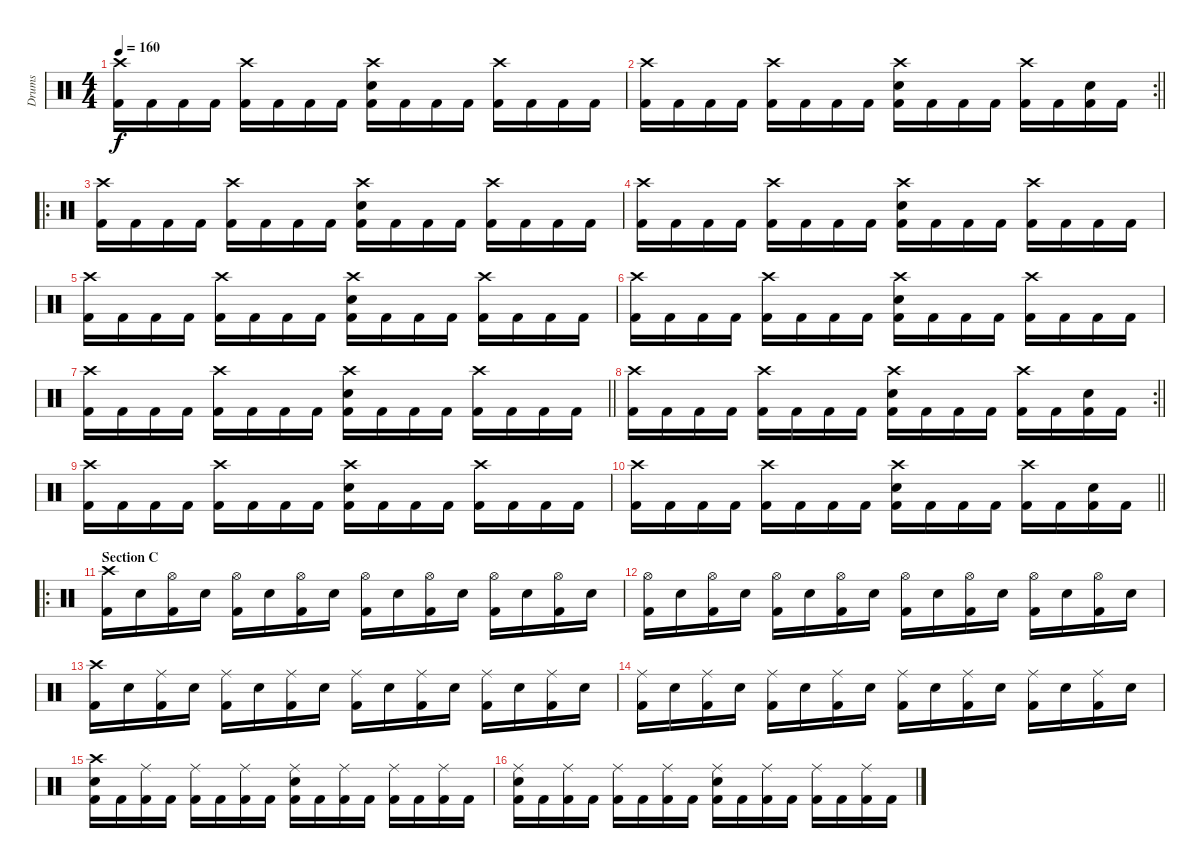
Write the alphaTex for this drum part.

\track ("Drums" "Drums") {instrument percussion}
\staff {score}
\articulation defaults
\ts (4 4)
\tempo 160
\clef neutral
\ks c
("Crash high (hit)" "Kick (hit) 2").16{dy f} "Kick (hit) 2".16 "Kick (hit) 2".16 "Kick (hit) 2".16 ("Crash high (hit)" "Kick (hit) 2").16 "Kick (hit) 2".16 "Kick (hit) 2".16 "Kick (hit) 2".16 ("Crash high (hit)" "Snare (hit) 2" "Kick (hit) 2").16 "Kick (hit) 2".16 "Kick (hit) 2".16 "Kick (hit) 2".16 ("Crash high (hit)" "Kick (hit) 2").16 "Kick (hit) 2".16 "Kick (hit) 2".16 "Kick (hit) 2".16 |
\rc 2
\barLineRight lightlight
("Crash high (hit)" "Kick (hit) 2").16 "Kick (hit) 2".16 "Kick (hit) 2".16 "Kick (hit) 2".16 ("Crash high (hit)" "Kick (hit) 2").16 "Kick (hit) 2".16 "Kick (hit) 2".16 "Kick (hit) 2".16 ("Crash high (hit)" "Snare (hit) 2" "Kick (hit) 2").16 "Kick (hit) 2".16 "Kick (hit) 2".16 "Kick (hit) 2".16 ("Crash high (hit)" "Kick (hit) 2").16 "Kick (hit) 2".16 ("Snare (hit) 2" "Kick (hit) 2").16 "Kick (hit) 2".16 |
\ro
\section ("" "")
("Crash high (hit)" "Kick (hit) 2").16 "Kick (hit) 2".16 "Kick (hit) 2".16 "Kick (hit) 2".16 ("Crash high (hit)" "Kick (hit) 2").16 "Kick (hit) 2".16 "Kick (hit) 2".16 "Kick (hit) 2".16 ("Crash high (hit)" "Snare (hit) 2" "Kick (hit) 2").16 "Kick (hit) 2".16 "Kick (hit) 2".16 "Kick (hit) 2".16 ("Crash high (hit)" "Kick (hit) 2").16 "Kick (hit) 2".16 "Kick (hit) 2".16 "Kick (hit) 2".16 |
("Crash high (hit)" "Kick (hit) 2").16 "Kick (hit) 2".16 "Kick (hit) 2".16 "Kick (hit) 2".16 ("Crash high (hit)" "Kick (hit) 2").16 "Kick (hit) 2".16 "Kick (hit) 2".16 "Kick (hit) 2".16 ("Crash high (hit)" "Snare (hit) 2" "Kick (hit) 2").16 "Kick (hit) 2".16 "Kick (hit) 2".16 "Kick (hit) 2".16 ("Crash high (hit)" "Kick (hit) 2").16 "Kick (hit) 2".16 "Kick (hit) 2".16 "Kick (hit) 2".16 |
("Crash high (hit)" "Kick (hit) 2").16 "Kick (hit) 2".16 "Kick (hit) 2".16 "Kick (hit) 2".16 ("Crash high (hit)" "Kick (hit) 2").16 "Kick (hit) 2".16 "Kick (hit) 2".16 "Kick (hit) 2".16 ("Crash high (hit)" "Snare (hit) 2" "Kick (hit) 2").16 "Kick (hit) 2".16 "Kick (hit) 2".16 "Kick (hit) 2".16 ("Crash high (hit)" "Kick (hit) 2").16 "Kick (hit) 2".16 "Kick (hit) 2".16 "Kick (hit) 2".16 |
("Crash high (hit)" "Kick (hit) 2").16 "Kick (hit) 2".16 "Kick (hit) 2".16 "Kick (hit) 2".16 ("Crash high (hit)" "Kick (hit) 2").16 "Kick (hit) 2".16 "Kick (hit) 2".16 "Kick (hit) 2".16 ("Crash high (hit)" "Snare (hit) 2" "Kick (hit) 2").16 "Kick (hit) 2".16 "Kick (hit) 2".16 "Kick (hit) 2".16 ("Crash high (hit)" "Kick (hit) 2").16 "Kick (hit) 2".16 "Kick (hit) 2".16 "Kick (hit) 2".16 |
\barLineRight lightlight
("Crash high (hit)" "Kick (hit) 2").16 "Kick (hit) 2".16 "Kick (hit) 2".16 "Kick (hit) 2".16 ("Crash high (hit)" "Kick (hit) 2").16 "Kick (hit) 2".16 "Kick (hit) 2".16 "Kick (hit) 2".16 ("Crash high (hit)" "Snare (hit) 2" "Kick (hit) 2").16 "Kick (hit) 2".16 "Kick (hit) 2".16 "Kick (hit) 2".16 ("Crash high (hit)" "Kick (hit) 2").16 "Kick (hit) 2".16 "Kick (hit) 2".16 "Kick (hit) 2".16 |
\rc 2
\barLineRight lightlight
("Crash high (hit)" "Kick (hit) 2").16 "Kick (hit) 2".16 "Kick (hit) 2".16 "Kick (hit) 2".16 ("Crash high (hit)" "Kick (hit) 2").16 "Kick (hit) 2".16 "Kick (hit) 2".16 "Kick (hit) 2".16 ("Crash high (hit)" "Snare (hit) 2" "Kick (hit) 2").16 "Kick (hit) 2".16 "Kick (hit) 2".16 "Kick (hit) 2".16 ("Crash high (hit)" "Kick (hit) 2").16 "Kick (hit) 2".16 ("Snare (hit) 2" "Kick (hit) 2").16 "Kick (hit) 2".16 |
("Crash high (hit)" "Kick (hit) 2").16 "Kick (hit) 2".16 "Kick (hit) 2".16 "Kick (hit) 2".16 ("Crash high (hit)" "Kick (hit) 2").16 "Kick (hit) 2".16 "Kick (hit) 2".16 "Kick (hit) 2".16 ("Crash high (hit)" "Snare (hit) 2" "Kick (hit) 2").16 "Kick (hit) 2".16 "Kick (hit) 2".16 "Kick (hit) 2".16 ("Crash high (hit)" "Kick (hit) 2").16 "Kick (hit) 2".16 "Kick (hit) 2".16 "Kick (hit) 2".16 |
\barLineRight lightlight
("Crash high (hit)" "Kick (hit) 2").16 "Kick (hit) 2".16 "Kick (hit) 2".16 "Kick (hit) 2".16 ("Crash high (hit)" "Kick (hit) 2").16 "Kick (hit) 2".16 "Kick (hit) 2".16 "Kick (hit) 2".16 ("Crash high (hit)" "Snare (hit) 2" "Kick (hit) 2").16 "Kick (hit) 2".16 "Kick (hit) 2".16 "Kick (hit) 2".16 ("Crash high (hit)" "Kick (hit) 2").16 "Kick (hit) 2".16 ("Snare (hit) 2" "Kick (hit) 2").16 "Kick (hit) 2".16 |
\ro
\section ("" "Section C")
("Crash high (hit)" "Kick (hit) 2").16 "Snare (hit) 2".16 ("Hi-Hat (open)" "Kick (hit) 2").16 "Snare (hit) 2".16 ("Hi-Hat (open)" "Kick (hit) 2").16 "Snare (hit) 2".16 ("Hi-Hat (open)" "Kick (hit) 2").16 "Snare (hit) 2".16 ("Hi-Hat (open)" "Kick (hit) 2").16 "Snare (hit) 2".16 ("Hi-Hat (open)" "Kick (hit) 2").16 "Snare (hit) 2".16 ("Hi-Hat (open)" "Kick (hit) 2").16 "Snare (hit) 2".16 ("Hi-Hat (open)" "Kick (hit) 2").16 "Snare (hit) 2".16 |
("Hi-Hat (open)" "Kick (hit) 2").16 "Snare (hit) 2".16 ("Hi-Hat (open)" "Kick (hit) 2").16 "Snare (hit) 2".16 ("Hi-Hat (open)" "Kick (hit) 2").16 "Snare (hit) 2".16 ("Hi-Hat (open)" "Kick (hit) 2").16 "Snare (hit) 2".16 ("Hi-Hat (open)" "Kick (hit) 2").16 "Snare (hit) 2".16 ("Hi-Hat (open)" "Kick (hit) 2").16 "Snare (hit) 2".16 ("Hi-Hat (open)" "Kick (hit) 2").16 "Snare (hit) 2".16 ("Hi-Hat (open)" "Kick (hit) 2").16 "Snare (hit) 2".16 |
("Crash high (hit)" "Kick (hit) 2").16 "Snare (hit) 2".16 ("Ride (middle)" "Kick (hit) 2").16 "Snare (hit) 2".16 ("Ride (middle)" "Kick (hit) 2").16 "Snare (hit) 2".16 ("Ride (middle)" "Kick (hit) 2").16 "Snare (hit) 2".16 ("Ride (middle)" "Kick (hit) 2").16 "Snare (hit) 2".16 ("Ride (middle)" "Kick (hit) 2").16 "Snare (hit) 2".16 ("Ride (middle)" "Kick (hit) 2").16 "Snare (hit) 2".16 ("Ride (middle)" "Kick (hit) 2").16 "Snare (hit) 2".16 |
("Ride (middle)" "Kick (hit) 2").16 "Snare (hit) 2".16 ("Ride (middle)" "Kick (hit) 2").16 "Snare (hit) 2".16 ("Ride (middle)" "Kick (hit) 2").16 "Snare (hit) 2".16 ("Ride (middle)" "Kick (hit) 2").16 "Snare (hit) 2".16 ("Ride (middle)" "Kick (hit) 2").16 "Snare (hit) 2".16 ("Ride (middle)" "Kick (hit) 2").16 "Snare (hit) 2".16 ("Ride (middle)" "Kick (hit) 2").16 "Snare (hit) 2".16 ("Ride (middle)" "Kick (hit) 2").16 "Snare (hit) 2".16 |
("Crash high (hit)" "Snare (hit) 2" "Kick (hit) 2").16 "Kick (hit) 2".16 ("Ride (middle)" "Kick (hit) 2").16 "Kick (hit) 2".16 ("Ride (middle)" "Kick (hit) 2").16 "Kick (hit) 2".16 ("Ride (middle)" "Kick (hit) 2").16 "Kick (hit) 2".16 ("Ride (middle)" "Snare (hit) 2" "Kick (hit) 2").16 "Kick (hit) 2".16 ("Ride (middle)" "Kick (hit) 2").16 "Kick (hit) 2".16 ("Ride (middle)" "Kick (hit) 2").16 "Kick (hit) 2".16 ("Ride (middle)" "Kick (hit) 2").16 "Kick (hit) 2".16 |
("Ride (middle)" "Snare (hit) 2" "Kick (hit) 2").16 "Kick (hit) 2".16 ("Ride (middle)" "Kick (hit) 2").16 "Kick (hit) 2".16 ("Ride (middle)" "Kick (hit) 2").16 "Kick (hit) 2".16 ("Ride (middle)" "Kick (hit) 2").16 "Kick (hit) 2".16 ("Ride (middle)" "Snare (hit) 2" "Kick (hit) 2").16 "Kick (hit) 2".16 ("Ride (middle)" "Kick (hit) 2").16 "Kick (hit) 2".16 ("Ride (middle)" "Kick (hit) 2").16 "Kick (hit) 2".16 ("Ride (middle)" "Kick (hit) 2").16 "Kick (hit) 2".16
